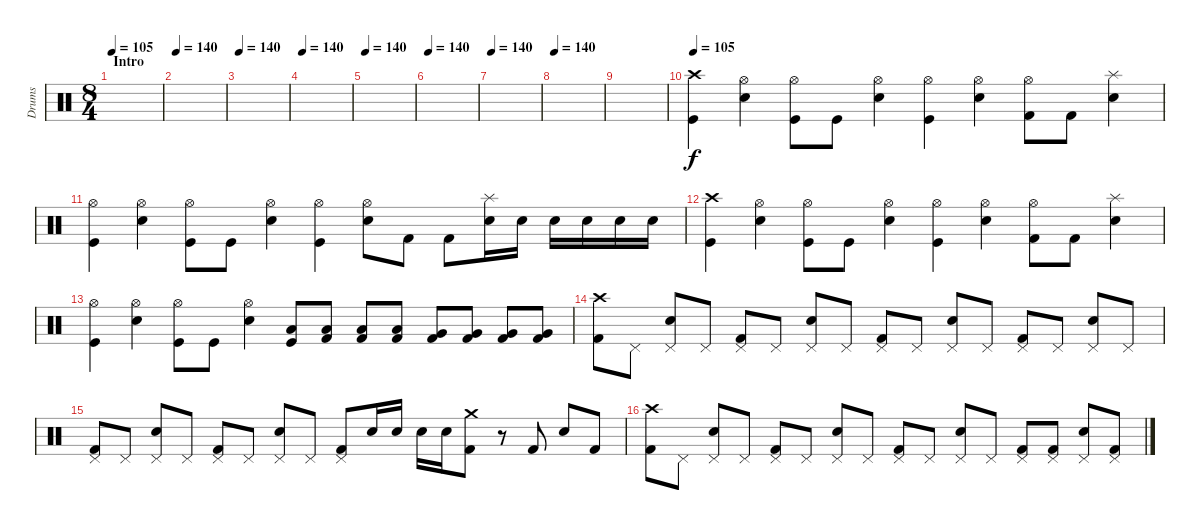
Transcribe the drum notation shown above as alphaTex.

\track ("Drums" "Drums") {instrument percussion}
\staff {score}
\articulation defaults
\ts (8 4)
\section ("" "Intro")
\tempo 105
\tempo 140
\tempo 105
\clef neutral
\ks c
|
\tempo 140
|
\tempo 140
|
\tempo 140
|
\tempo 140
|
\tempo 140
|
\tempo 140
|
\tempo 140
|
|
\tempo 105
("Crash high (hit)" "Kick (hit)").4 ("Hi-Hat (open)" "Snare (hit) 2").4 ("Hi-Hat (open)" "Kick (hit)").8 "Kick (hit)".8 ("Hi-Hat (open)" "Snare (hit) 2").4 ("Hi-Hat (open)" "Kick (hit)").4 ("Hi-Hat (open)" "Snare (hit) 2").4 ("Hi-Hat (open)" "Kick (hit) 2").8 "Kick (hit) 2".8 ("Splash (hit)" "Snare (hit) 2").4 |
("Hi-Hat (open)" "Kick (hit)").4 ("Hi-Hat (open)" "Snare (hit) 2").4 ("Hi-Hat (open)" "Kick (hit)").8 "Kick (hit)".8 ("Hi-Hat (open)" "Snare (hit) 2").4 ("Hi-Hat (open)" "Kick (hit)").4 ("Hi-Hat (open)" "Snare (hit) 2").8 "Kick (hit) 2".8 "Kick (hit) 2".8 ("Splash (hit)" "Snare (hit) 2").16 "Snare (hit) 2".16 "Snare (hit) 2".16 "Snare (hit) 2".16 "Snare (hit) 2".16 "Snare (hit) 2".16 |
("Crash high (hit)" "Kick (hit)").4 ("Hi-Hat (open)" "Snare (hit) 2").4 ("Hi-Hat (open)" "Kick (hit)").8 "Kick (hit)".8 ("Hi-Hat (open)" "Snare (hit) 2").4 ("Hi-Hat (open)" "Kick (hit)").4 ("Hi-Hat (open)" "Snare (hit) 2").4 ("Hi-Hat (open)" "Kick (hit) 2").8 "Kick (hit) 2".8 ("Splash (hit)" "Snare (hit) 2").4 |
("Hi-Hat (open)" "Kick (hit)").4 ("Hi-Hat (open)" "Snare (hit) 2").4 ("Hi-Hat (open)" "Kick (hit)").8 "Kick (hit)".8 ("Hi-Hat (open)" "Snare (hit) 2").4 ("Low Tom (hit)" "Kick (hit)").8 ("Low Tom (hit)" "Kick (hit) 2").8 ("Low Tom (hit)" "Kick (hit) 2").8 ("Low Tom (hit)" "Kick (hit) 2").8 ("Very Low Tom (hit)" "Kick (hit) 2").8 ("Very Low Tom (hit)" "Kick (hit) 2").8 ("Very Low Tom (hit)" "Kick (hit) 2").8 ("Very Low Tom (hit)" "Kick (hit) 2").8 |
("Crash high (hit)" "Kick (hit) 2").8 "Pedal Hi-Hat (hit)".8 ("Pedal Hi-Hat (hit)" "Snare (hit) 2").8 "Pedal Hi-Hat (hit)".8 ("Pedal Hi-Hat (hit)" "Kick (hit) 2").8 "Pedal Hi-Hat (hit)".8 ("Pedal Hi-Hat (hit)" "Snare (hit) 2").8 "Pedal Hi-Hat (hit)".8 ("Pedal Hi-Hat (hit)" "Kick (hit) 2").8 "Pedal Hi-Hat (hit)".8 ("Pedal Hi-Hat (hit)" "Snare (hit) 2").8 "Pedal Hi-Hat (hit)".8 ("Pedal Hi-Hat (hit)" "Kick (hit) 2").8 "Pedal Hi-Hat (hit)".8 ("Pedal Hi-Hat (hit)" "Snare (hit) 2").8 "Pedal Hi-Hat (hit)".8 |
("Pedal Hi-Hat (hit)" "Kick (hit) 2").8 "Pedal Hi-Hat (hit)".8 ("Pedal Hi-Hat (hit)" "Snare (hit) 2").8 "Pedal Hi-Hat (hit)".8 ("Pedal Hi-Hat (hit)" "Kick (hit) 2").8 "Pedal Hi-Hat (hit)".8 ("Pedal Hi-Hat (hit)" "Snare (hit) 2").8 "Pedal Hi-Hat (hit)".8 ("Pedal Hi-Hat (hit)" "Kick (hit) 2").8 "Snare (hit) 2".16 "Snare (hit) 2".16 "Snare (hit) 2".16 "Snare (hit) 2".16 ("Crash medium (hit)" "Kick (hit) 2").8 r.8 "Kick (hit) 2".8 "Snare (hit) 2".8 "Kick (hit) 2".8 |
("Crash high (hit)" "Kick (hit) 2").8 "Pedal Hi-Hat (hit)".8 ("Pedal Hi-Hat (hit)" "Snare (hit) 2").8 "Pedal Hi-Hat (hit)".8 ("Pedal Hi-Hat (hit)" "Kick (hit) 2").8 "Pedal Hi-Hat (hit)".8 ("Pedal Hi-Hat (hit)" "Snare (hit) 2").8 "Pedal Hi-Hat (hit)".8 ("Pedal Hi-Hat (hit)" "Kick (hit) 2").8 "Pedal Hi-Hat (hit)".8 ("Pedal Hi-Hat (hit)" "Snare (hit) 2").8 "Pedal Hi-Hat (hit)".8 ("Pedal Hi-Hat (hit)" "Kick (hit) 2").8 ("Pedal Hi-Hat (hit)" "Kick (hit) 2").8 ("Pedal Hi-Hat (hit)" "Snare (hit) 2").8 ("Pedal Hi-Hat (hit)" "Kick (hit) 2").8
